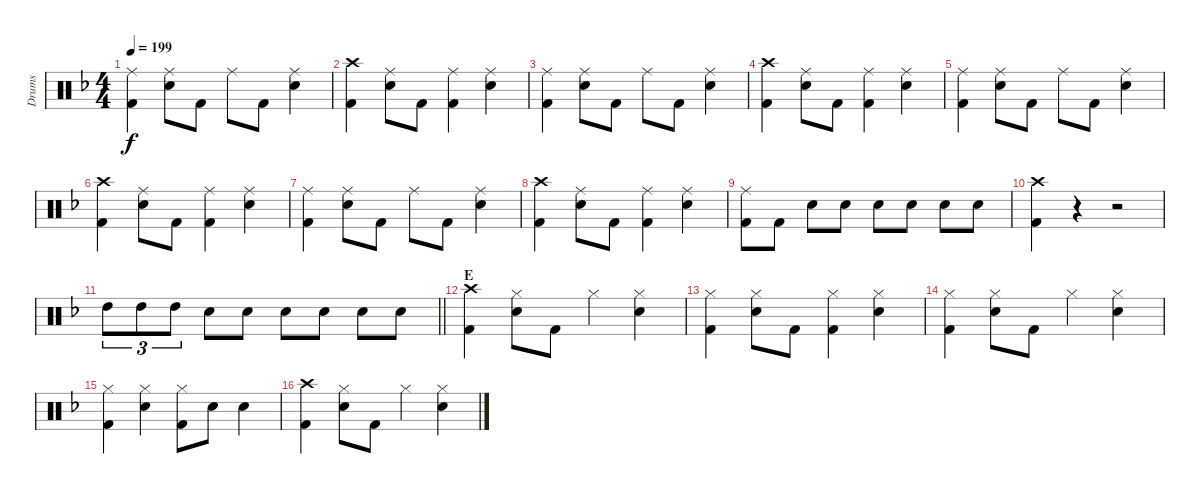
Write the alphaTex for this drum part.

\track ("Drums" "Drums") {instrument percussion}
\staff {score}
\articulation defaults
\ts (4 4)
\tempo 199
\clef neutral
\ks f
("Ride (middle)" "Kick (hit) 2").4{dy f} ("Ride (middle)" "Snare (hit) 2").8 "Kick (hit) 2".8 "Ride (middle)".8 "Kick (hit) 2".8 ("Ride (middle)" "Snare (hit) 2").4 |
("Crash high (hit)" "Kick (hit) 2").4 ("Ride (middle)" "Snare (hit) 2").8 "Kick (hit) 2".8 ("Ride (middle)" "Kick (hit) 2").4 ("Ride (middle)" "Snare (hit) 2").4 |
("Ride (middle)" "Kick (hit) 2").4 ("Ride (middle)" "Snare (hit) 2").8 "Kick (hit) 2".8 "Ride (middle)".8 "Kick (hit) 2".8 ("Ride (middle)" "Snare (hit) 2").4 |
("Crash high (hit)" "Kick (hit) 2").4 ("Ride (middle)" "Snare (hit) 2").8 "Kick (hit) 2".8 ("Ride (middle)" "Kick (hit) 2").4 ("Ride (middle)" "Snare (hit) 2").4 |
("Ride (middle)" "Kick (hit) 2").4 ("Ride (middle)" "Snare (hit) 2").8 "Kick (hit) 2".8 "Ride (middle)".8 "Kick (hit) 2".8 ("Ride (middle)" "Snare (hit) 2").4 |
("Crash high (hit)" "Kick (hit) 2").4 ("Ride (middle)" "Snare (hit) 2").8 "Kick (hit) 2".8 ("Ride (middle)" "Kick (hit) 2").4 ("Ride (middle)" "Snare (hit) 2").4 |
("Ride (middle)" "Kick (hit) 2").4 ("Ride (middle)" "Snare (hit) 2").8 "Kick (hit) 2".8 "Ride (middle)".8 "Kick (hit) 2".8 ("Ride (middle)" "Snare (hit) 2").4 |
("Crash high (hit)" "Kick (hit) 2").4 ("Ride (middle)" "Snare (hit) 2").8 "Kick (hit) 2".8 ("Ride (middle)" "Kick (hit) 2").4 ("Ride (middle)" "Snare (hit) 2").4 |
("Ride (middle)" "Kick (hit) 2").8 "Kick (hit) 2".8 "Snare (hit) 2".8 "Snare (hit) 2".8 "Snare (hit) 2".8 "Snare (hit) 2".8 "Snare (hit) 2".8 "Snare (hit) 2".8 |
("Crash high (hit)" "Kick (hit) 2").4 r.4 r.2 |
\barLineRight lightlight "High Tom (hit)".8{tu (3 2)} "High Tom (hit)".8{tu (3 2)} "High Tom (hit)".8{tu (3 2)} "Snare (hit) 2".8 "Snare (hit) 2".8 "Snare (hit) 2".8 "Snare (hit) 2".8 "Snare (hit) 2".8 "Snare (hit) 2".8
|
\section ("" "E")
("Crash high (hit)" "Kick (hit) 2").4 ("Hi-Hat (closed)" "Snare (hit) 2").8 "Kick (hit) 2".8 "Hi-Hat (closed)".4 ("Hi-Hat (closed)" "Snare (hit) 2").4 |
("Hi-Hat (closed)" "Kick (hit) 2").4 ("Hi-Hat (closed)" "Snare (hit) 2").8 "Kick (hit) 2".8 ("Hi-Hat (closed)" "Kick (hit) 2").4 ("Hi-Hat (closed)" "Snare (hit) 2").4 |
("Hi-Hat (closed)" "Kick (hit) 2").4 ("Hi-Hat (closed)" "Snare (hit) 2").8 "Kick (hit) 2".8 "Hi-Hat (closed)".4 ("Hi-Hat (closed)" "Snare (hit) 2").4 |
("Hi-Hat (closed)" "Kick (hit) 2").4 ("Hi-Hat (closed)" "Snare (hit) 2").4 ("Hi-Hat (closed)" "Kick (hit) 2").8 "Snare (hit) 2".8 "Snare (hit) 2".4 |
("Crash high (hit)" "Kick (hit) 2").4 ("Hi-Hat (closed)" "Snare (hit) 2").8 "Kick (hit) 2".8 "Hi-Hat (closed)".4 ("Hi-Hat (closed)" "Snare (hit) 2").4
